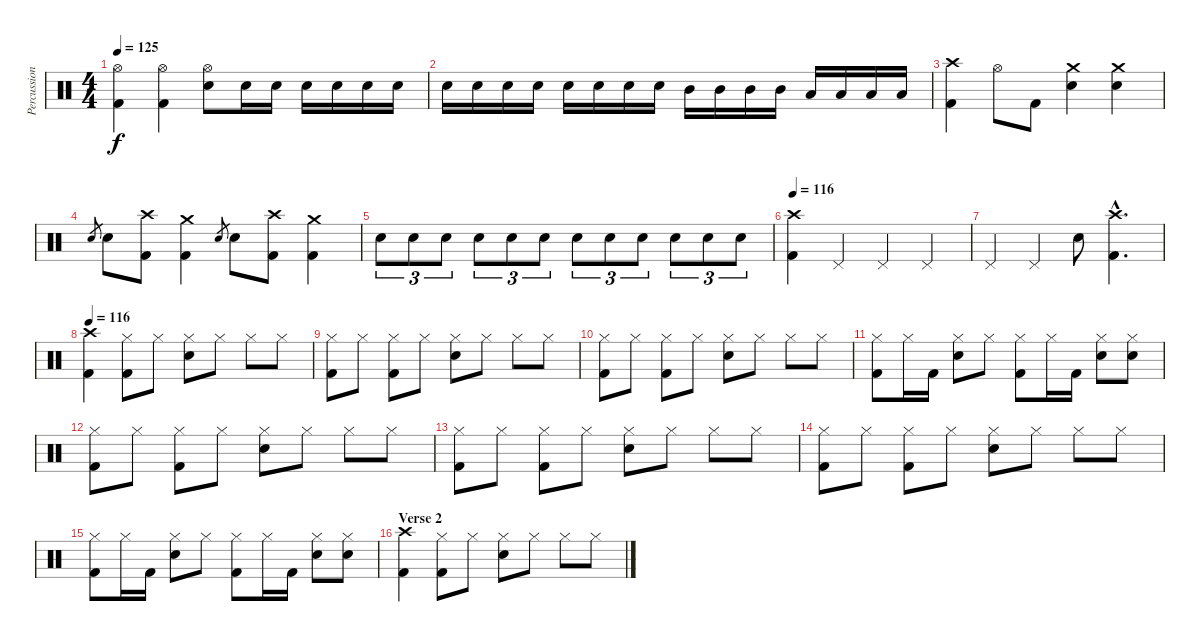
\track ("Percussion" "Percussion") {instrument percussion}
\staff {score}
\articulation defaults
\ts (4 4)
\tempo 125
\clef neutral
\ks c
("Kick (hit) 2" "Hi-Hat (open)").4{dy f} ("Kick (hit) 2" "Hi-Hat (open)").4 ("Electric Snare (hit)" "Hi-Hat (open)").8 "Electric Snare (hit)".16 "Electric Snare (hit)".16 "Electric Snare (hit)".16 "Electric Snare (hit)".16 "Electric Snare (hit)".16 "Electric Snare (hit)".16 |
"Electric Snare (hit)".16 "Electric Snare (hit)".16 "Electric Snare (hit)".16 "Electric Snare (hit)".16 "Electric Snare (hit)".16 "Electric Snare (hit)".16 "Electric Snare (hit)".16 "Electric Snare (hit)".16 "Mid Tom (hit)".16 "Mid Tom (hit)".16 "Mid Tom (hit)".16 "Mid Tom (hit)".16 "Low Tom (hit)".16 "Low Tom (hit)".16 "Low Tom (hit)".16 "Low Tom (hit)".16 |
("Kick (hit) 2" "Crash high (hit)").4 "Hi-Hat (open)".8 "Kick (hit) 2".8 ("Electric Snare (hit)" "Crash medium (hit)").4 ("Electric Snare (hit)" "Crash medium (hit)").4 |
"Electric Snare (hit)".8{gr} "Electric Snare (hit)".8 ("Kick (hit) 2" "Crash high (hit)").8 ("Kick (hit) 2" "Crash medium (hit)").4 "Electric Snare (hit)".8{gr} "Electric Snare (hit)".8 ("Kick (hit) 2" "Crash high (hit)").8 ("Kick (hit) 2" "Crash medium (hit)").4 |
"Electric Snare (hit)".8{tu (3 2)} "Electric Snare (hit)".8{tu (3 2)} "Electric Snare (hit)".8{tu (3 2)} "Electric Snare (hit)".8{tu (3 2)} "Electric Snare (hit)".8{tu (3 2)} "Electric Snare (hit)".8{tu (3 2)} "Electric Snare (hit)".8{tu (3 2)} "Electric Snare (hit)".8{tu (3 2)} "Electric Snare (hit)".8{tu (3 2)} "Electric Snare (hit)".8{tu (3 2)} "Electric Snare (hit)".8{tu (3 2)} "Electric Snare (hit)".8{tu (3 2)} |
\tempo 116
("Kick (hit) 2" "Crash high (hit)").4 "Pedal Hi-Hat (hit)".4 "Pedal Hi-Hat (hit)".4 "Pedal Hi-Hat (hit)".4 |
"Pedal Hi-Hat (hit)".4 "Pedal Hi-Hat (hit)".4 "Electric Snare (hit)".8 ("Kick (hit) 2"{hac} "Crash high (hit)"{hac}).4{d} |
\tempo 116
("Kick (hit) 2" "Crash high (hit)").4 ("Kick (hit) 2" "Hi-Hat (closed)").8 "Hi-Hat (closed)".8 ("Electric Snare (hit)" "Hi-Hat (closed)").8 "Hi-Hat (closed)".8 "Hi-Hat (closed)".8 "Hi-Hat (closed)".8 |
("Kick (hit) 2" "Hi-Hat (closed)").8 "Hi-Hat (closed)".8 ("Kick (hit) 2" "Hi-Hat (closed)").8 "Hi-Hat (closed)".8 ("Electric Snare (hit)" "Hi-Hat (closed)").8 "Hi-Hat (closed)".8 "Hi-Hat (closed)".8 "Hi-Hat (closed)".8 |
("Kick (hit) 2" "Hi-Hat (closed)").8 "Hi-Hat (closed)".8 ("Kick (hit) 2" "Hi-Hat (closed)").8 "Hi-Hat (closed)".8 ("Electric Snare (hit)" "Hi-Hat (closed)").8 "Hi-Hat (closed)".8 "Hi-Hat (closed)".8 "Hi-Hat (closed)".8 |
("Kick (hit) 2" "Hi-Hat (closed)").8 "Hi-Hat (closed)".16 "Kick (hit) 2".16 ("Electric Snare (hit)" "Hi-Hat (closed)").8 "Hi-Hat (closed)".8 ("Kick (hit) 2" "Hi-Hat (closed)").8 "Hi-Hat (closed)".16 "Kick (hit) 2".16 ("Electric Snare (hit)" "Hi-Hat (closed)").8 ("Electric Snare (hit)" "Hi-Hat (closed)").8 |
("Kick (hit) 2" "Hi-Hat (closed)").8 "Hi-Hat (closed)".8 ("Kick (hit) 2" "Hi-Hat (closed)").8 "Hi-Hat (closed)".8 ("Electric Snare (hit)" "Hi-Hat (closed)").8 "Hi-Hat (closed)".8 "Hi-Hat (closed)".8 "Hi-Hat (closed)".8 |
("Kick (hit) 2" "Hi-Hat (closed)").8 "Hi-Hat (closed)".8 ("Kick (hit) 2" "Hi-Hat (closed)").8 "Hi-Hat (closed)".8 ("Electric Snare (hit)" "Hi-Hat (closed)").8 "Hi-Hat (closed)".8 "Hi-Hat (closed)".8 "Hi-Hat (closed)".8 |
("Kick (hit) 2" "Hi-Hat (closed)").8 "Hi-Hat (closed)".8 ("Kick (hit) 2" "Hi-Hat (closed)").8 "Hi-Hat (closed)".8 ("Electric Snare (hit)" "Hi-Hat (closed)").8 "Hi-Hat (closed)".8 "Hi-Hat (closed)".8 "Hi-Hat (closed)".8 |
("Kick (hit) 2" "Hi-Hat (closed)").8 "Hi-Hat (closed)".16 "Kick (hit) 2".16 ("Electric Snare (hit)" "Hi-Hat (closed)").8 "Hi-Hat (closed)".8 ("Kick (hit) 2" "Hi-Hat (closed)").8 "Hi-Hat (closed)".16 "Kick (hit) 2".16 ("Electric Snare (hit)" "Hi-Hat (closed)").8 ("Electric Snare (hit)" "Hi-Hat (closed)").8 |
\section ("" "Verse 2")
("Kick (hit) 2" "Crash high (hit)").4 ("Kick (hit) 2" "Hi-Hat (closed)").8 "Hi-Hat (closed)".8 ("Electric Snare (hit)" "Hi-Hat (closed)").8 "Hi-Hat (closed)".8 "Hi-Hat (closed)".8 "Hi-Hat (closed)".8
